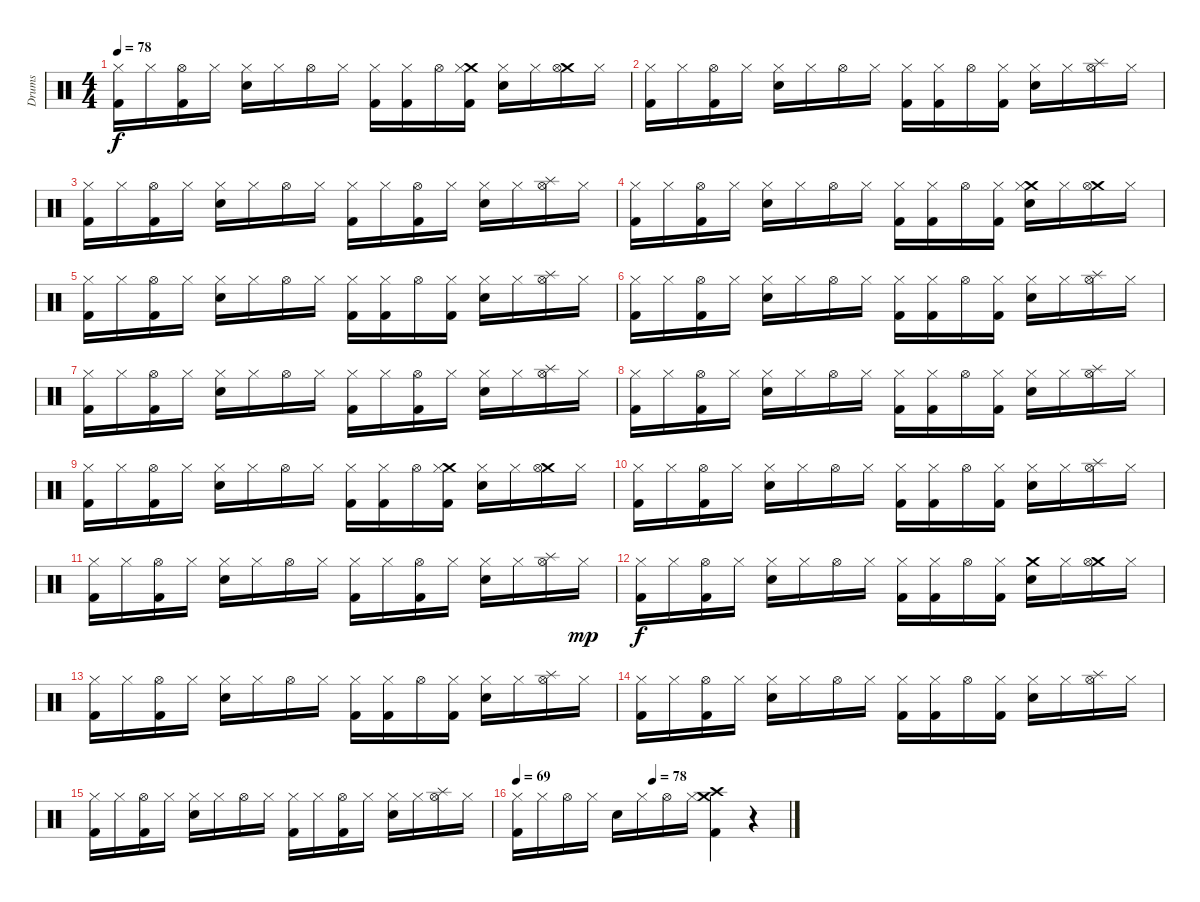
\track ("Drums" "Drums") {instrument percussion}
\staff {score}
\articulation defaults
\ts (4 4)
\tempo 78
\clef neutral
\ks c
("Hi-Hat (closed)" "Kick (hit) 2").16{dy f} "Hi-Hat (closed)".16 ("Hi-Hat (open)" "Kick (hit) 2").16 "Hi-Hat (closed)".16 ("Hi-Hat (closed)" "Snare (hit) 2").16 "Hi-Hat (closed)".16 "Hi-Hat (open)".16 "Hi-Hat (closed)".16 ("Hi-Hat (closed)" "Kick (hit) 2").16 ("Hi-Hat (closed)" "Kick (hit) 2").16 "Hi-Hat (open)".16 ("Crash medium (hit)" "Hi-Hat (closed)" "Kick (hit) 2").16 ("Hi-Hat (closed)" "Snare (hit) 2").16 "Hi-Hat (closed)".16 ("Crash medium (hit)" "Hi-Hat (open)").16 "Hi-Hat (closed)".16 |
("Hi-Hat (closed)" "Kick (hit) 2").16 "Hi-Hat (closed)".16 ("Hi-Hat (open)" "Kick (hit) 2").16 "Hi-Hat (closed)".16 ("Hi-Hat (closed)" "Snare (hit) 2").16 "Hi-Hat (closed)".16 "Hi-Hat (open)".16 "Hi-Hat (closed)".16 ("Hi-Hat (closed)" "Kick (hit) 2").16 ("Hi-Hat (closed)" "Kick (hit) 2").16 "Hi-Hat (open)".16 ("Hi-Hat (closed)" "Kick (hit) 2").16 ("Hi-Hat (closed)" "Snare (hit) 2").16 "Hi-Hat (closed)".16 ("Splash (hit)" "Hi-Hat (open)").16 "Hi-Hat (closed)".16 |
("Hi-Hat (closed)" "Kick (hit) 2").16 "Hi-Hat (closed)".16 ("Hi-Hat (open)" "Kick (hit) 2").16 "Hi-Hat (closed)".16 ("Hi-Hat (closed)" "Snare (hit) 2").16 "Hi-Hat (closed)".16 "Hi-Hat (open)".16 "Hi-Hat (closed)".16 ("Hi-Hat (closed)" "Kick (hit) 2").16 "Hi-Hat (closed)".16 ("Hi-Hat (open)" "Kick (hit) 2").16 "Hi-Hat (closed)".16 ("Hi-Hat (closed)" "Snare (hit) 2").16 "Hi-Hat (closed)".16 ("Splash (hit)" "Hi-Hat (open)").16 "Hi-Hat (closed)".16 |
("Hi-Hat (closed)" "Kick (hit) 2").16 "Hi-Hat (closed)".16 ("Hi-Hat (open)" "Kick (hit) 2").16 "Hi-Hat (closed)".16 ("Hi-Hat (closed)" "Snare (hit) 2").16 "Hi-Hat (closed)".16 "Hi-Hat (open)".16 "Hi-Hat (closed)".16 ("Hi-Hat (closed)" "Kick (hit) 2").16 ("Hi-Hat (closed)" "Kick (hit) 2").16 "Hi-Hat (open)".16 ("Hi-Hat (closed)" "Kick (hit) 2").16 ("Crash medium (hit)" "Hi-Hat (closed)" "Snare (hit) 2").16 "Hi-Hat (closed)".16 ("Crash medium (hit)" "Hi-Hat (open)").16 "Hi-Hat (closed)".16 |
("Hi-Hat (closed)" "Kick (hit) 2").16 "Hi-Hat (closed)".16 ("Hi-Hat (open)" "Kick (hit) 2").16 "Hi-Hat (closed)".16 ("Hi-Hat (closed)" "Snare (hit) 2").16 "Hi-Hat (closed)".16 "Hi-Hat (open)".16 "Hi-Hat (closed)".16 ("Hi-Hat (closed)" "Kick (hit) 2").16 ("Hi-Hat (closed)" "Kick (hit) 2").16 "Hi-Hat (open)".16 ("Hi-Hat (closed)" "Kick (hit) 2").16 ("Hi-Hat (closed)" "Snare (hit) 2").16 "Hi-Hat (closed)".16 ("Splash (hit)" "Hi-Hat (open)").16 "Hi-Hat (closed)".16 |
("Hi-Hat (closed)" "Kick (hit) 2").16 "Hi-Hat (closed)".16 ("Hi-Hat (open)" "Kick (hit) 2").16 "Hi-Hat (closed)".16 ("Hi-Hat (closed)" "Snare (hit) 2").16 "Hi-Hat (closed)".16 "Hi-Hat (open)".16 "Hi-Hat (closed)".16 ("Hi-Hat (closed)" "Kick (hit) 2").16 ("Hi-Hat (closed)" "Kick (hit) 2").16 "Hi-Hat (open)".16 ("Hi-Hat (closed)" "Kick (hit) 2").16 ("Hi-Hat (closed)" "Snare (hit) 2").16 "Hi-Hat (closed)".16 ("Splash (hit)" "Hi-Hat (open)").16 "Hi-Hat (closed)".16 |
("Hi-Hat (closed)" "Kick (hit) 2").16 "Hi-Hat (closed)".16 ("Hi-Hat (open)" "Kick (hit) 2").16 "Hi-Hat (closed)".16 ("Hi-Hat (closed)" "Snare (hit) 2").16 "Hi-Hat (closed)".16 "Hi-Hat (open)".16 "Hi-Hat (closed)".16 ("Hi-Hat (closed)" "Kick (hit) 2").16 "Hi-Hat (closed)".16 ("Hi-Hat (open)" "Kick (hit) 2").16 "Hi-Hat (closed)".16 ("Hi-Hat (closed)" "Snare (hit) 2").16 "Hi-Hat (closed)".16 ("Splash (hit)" "Hi-Hat (open)").16 "Hi-Hat (closed)".16 |
("Hi-Hat (closed)" "Kick (hit) 2").16 "Hi-Hat (closed)".16 ("Hi-Hat (open)" "Kick (hit) 2").16 "Hi-Hat (closed)".16 ("Hi-Hat (closed)" "Snare (hit) 2").16 "Hi-Hat (closed)".16 "Hi-Hat (open)".16 "Hi-Hat (closed)".16 ("Hi-Hat (closed)" "Kick (hit) 2").16 ("Hi-Hat (closed)" "Kick (hit) 2").16 "Hi-Hat (open)".16 ("Hi-Hat (closed)" "Kick (hit) 2").16 ("Hi-Hat (closed)" "Snare (hit) 2").16 "Hi-Hat (closed)".16 ("Splash (hit)" "Hi-Hat (open)").16 "Hi-Hat (closed)".16 |
("Hi-Hat (closed)" "Kick (hit) 2").16 "Hi-Hat (closed)".16 ("Hi-Hat (open)" "Kick (hit) 2").16 "Hi-Hat (closed)".16 ("Hi-Hat (closed)" "Snare (hit) 2").16 "Hi-Hat (closed)".16 "Hi-Hat (open)".16 "Hi-Hat (closed)".16 ("Hi-Hat (closed)" "Kick (hit) 2").16 ("Hi-Hat (closed)" "Kick (hit) 2").16 "Hi-Hat (open)".16 ("Crash medium (hit)" "Hi-Hat (closed)" "Kick (hit) 2").16 ("Hi-Hat (closed)" "Snare (hit) 2").16 "Hi-Hat (closed)".16 ("Crash medium (hit)" "Hi-Hat (open)").16 "Hi-Hat (closed)".16 |
("Hi-Hat (closed)" "Kick (hit) 2").16 "Hi-Hat (closed)".16 ("Hi-Hat (open)" "Kick (hit) 2").16 "Hi-Hat (closed)".16 ("Hi-Hat (closed)" "Snare (hit) 2").16 "Hi-Hat (closed)".16 "Hi-Hat (open)".16 "Hi-Hat (closed)".16 ("Hi-Hat (closed)" "Kick (hit) 2").16 ("Hi-Hat (closed)" "Kick (hit) 2").16 "Hi-Hat (open)".16 ("Hi-Hat (closed)" "Kick (hit) 2").16 ("Hi-Hat (closed)" "Snare (hit) 2").16 "Hi-Hat (closed)".16 ("Splash (hit)" "Hi-Hat (open)").16 "Hi-Hat (closed)".16 |
("Hi-Hat (closed)" "Kick (hit) 2").16 "Hi-Hat (closed)".16 ("Hi-Hat (open)" "Kick (hit) 2").16 "Hi-Hat (closed)".16 ("Hi-Hat (closed)" "Snare (hit) 2").16 "Hi-Hat (closed)".16 "Hi-Hat (open)".16 "Hi-Hat (closed)".16 ("Hi-Hat (closed)" "Kick (hit) 2").16 "Hi-Hat (closed)".16 ("Hi-Hat (open)" "Kick (hit) 2").16 "Hi-Hat (closed)".16 ("Hi-Hat (closed)" "Snare (hit) 2").16 "Hi-Hat (closed)".16 ("Splash (hit)" "Hi-Hat (open)").16 "Hi-Hat (closed)".16{dy mp} |
("Hi-Hat (closed)" "Kick (hit) 2").16{dy f} "Hi-Hat (closed)".16 ("Hi-Hat (open)" "Kick (hit) 2").16 "Hi-Hat (closed)".16 ("Hi-Hat (closed)" "Snare (hit) 2").16 "Hi-Hat (closed)".16 "Hi-Hat (open)".16 "Hi-Hat (closed)".16 ("Hi-Hat (closed)" "Kick (hit) 2").16 ("Hi-Hat (closed)" "Kick (hit) 2").16 "Hi-Hat (open)".16 ("Hi-Hat (closed)" "Kick (hit) 2").16 ("Crash medium (hit)" "Snare (hit) 2").16 "Hi-Hat (closed)".16 ("Crash medium (hit)" "Hi-Hat (open)").16 "Hi-Hat (closed)".16 |
("Hi-Hat (closed)" "Kick (hit) 2").16 "Hi-Hat (closed)".16 ("Hi-Hat (open)" "Kick (hit) 2").16 "Hi-Hat (closed)".16 ("Hi-Hat (closed)" "Snare (hit) 2").16 "Hi-Hat (closed)".16 "Hi-Hat (open)".16 "Hi-Hat (closed)".16 ("Hi-Hat (closed)" "Kick (hit) 2").16 ("Hi-Hat (closed)" "Kick (hit) 2").16 "Hi-Hat (open)".16 ("Hi-Hat (closed)" "Kick (hit) 2").16 ("Hi-Hat (closed)" "Snare (hit) 2").16 "Hi-Hat (closed)".16 ("Splash (hit)" "Hi-Hat (open)").16 "Hi-Hat (closed)".16 |
("Hi-Hat (closed)" "Kick (hit) 2").16 "Hi-Hat (closed)".16 ("Hi-Hat (open)" "Kick (hit) 2").16 "Hi-Hat (closed)".16 ("Hi-Hat (closed)" "Snare (hit) 2").16 "Hi-Hat (closed)".16 "Hi-Hat (open)".16 "Hi-Hat (closed)".16 ("Hi-Hat (closed)" "Kick (hit) 2").16 ("Hi-Hat (closed)" "Kick (hit) 2").16 "Hi-Hat (open)".16 ("Hi-Hat (closed)" "Kick (hit) 2").16 ("Hi-Hat (closed)" "Snare (hit) 2").16 "Hi-Hat (closed)".16 ("Splash (hit)" "Hi-Hat (open)").16 "Hi-Hat (closed)".16 |
("Hi-Hat (closed)" "Kick (hit) 2").16 "Hi-Hat (closed)".16 ("Hi-Hat (open)" "Kick (hit) 2").16 "Hi-Hat (closed)".16 ("Hi-Hat (closed)" "Snare (hit) 2").16 "Hi-Hat (closed)".16 "Hi-Hat (open)".16 "Hi-Hat (closed)".16 ("Hi-Hat (closed)" "Kick (hit) 2").16 "Hi-Hat (closed)".16 ("Hi-Hat (open)" "Kick (hit) 2").16 "Hi-Hat (closed)".16 ("Hi-Hat (closed)" "Snare (hit) 2").16 "Hi-Hat (closed)".16 ("Splash (hit)" "Hi-Hat (open)").16 "Hi-Hat (closed)".16 |
\tempo 69
\tempo (78 0.5)
("Hi-Hat (closed)" "Kick (hit) 2").16 "Hi-Hat (closed)".16 "Hi-Hat (open)".16 "Hi-Hat (closed)".16 "Snare (hit) 2".16 "Hi-Hat (closed)".16 "Hi-Hat (open)".16 "Hi-Hat (closed)".16 ("Crash medium (hit)" "Crash high (hit)" "Kick (hit) 2").4 r.4
